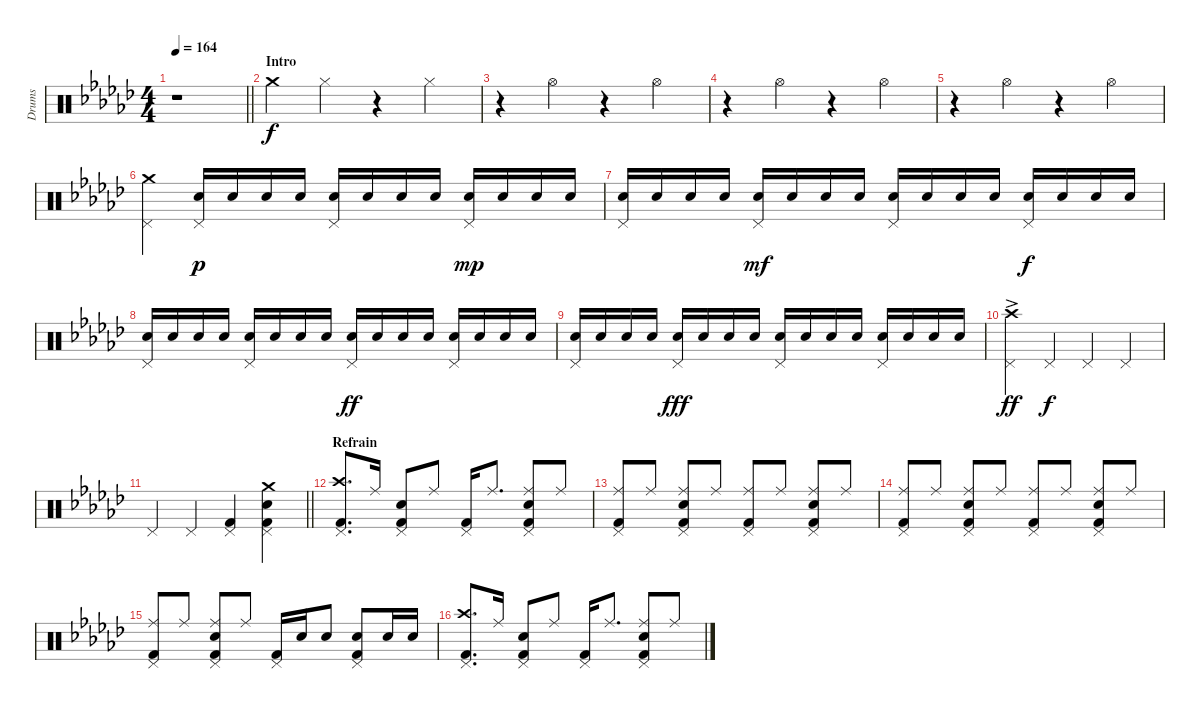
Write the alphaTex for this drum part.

\track ("Drums" "Drums") {instrument percussion}
\staff {score}
\articulation defaults
\ts (4 4)
\tempo 164
\clef neutral
\barLineRight lightlight
\ks gb
r.1{dy f} |
\section ("" "Intro")
"Crash medium (hit)".4 "Hi-Hat (closed)".4 r.4 "Hi-Hat (closed)".4 |
r.4 "Hi-Hat (open)".4 r.4 "Hi-Hat (open)".4 |
r.4 "Hi-Hat (open)".4 r.4 "Hi-Hat (open)".4 |
r.4 "Hi-Hat (open)".4 r.4 "Hi-Hat (open)".4 |
("Crash medium (hit)" "Pedal Hi-Hat (hit)").4 ("Snare (hit) 2" "Pedal Hi-Hat (hit)").16{dy p} "Snare (hit) 2".16 "Snare (hit) 2".16 "Snare (hit) 2".16 ("Snare (hit) 2" "Pedal Hi-Hat (hit)").16 "Snare (hit) 2".16 "Snare (hit) 2".16 "Snare (hit) 2".16 ("Snare (hit) 2" "Pedal Hi-Hat (hit)").16{dy mp} "Snare (hit) 2".16 "Snare (hit) 2".16 "Snare (hit) 2".16 |
("Snare (hit) 2" "Pedal Hi-Hat (hit)").16 "Snare (hit) 2".16 "Snare (hit) 2".16 "Snare (hit) 2".16 ("Snare (hit) 2" "Pedal Hi-Hat (hit)").16{dy mf} "Snare (hit) 2".16 "Snare (hit) 2".16 "Snare (hit) 2".16 ("Snare (hit) 2" "Pedal Hi-Hat (hit)").16 "Snare (hit) 2".16 "Snare (hit) 2".16 "Snare (hit) 2".16 ("Snare (hit) 2" "Pedal Hi-Hat (hit)").16{dy f} "Snare (hit) 2".16 "Snare (hit) 2".16 "Snare (hit) 2".16 |
("Snare (hit) 2" "Pedal Hi-Hat (hit)").16 "Snare (hit) 2".16 "Snare (hit) 2".16 "Snare (hit) 2".16 ("Snare (hit) 2" "Pedal Hi-Hat (hit)").16 "Snare (hit) 2".16 "Snare (hit) 2".16 "Snare (hit) 2".16 ("Snare (hit) 2" "Pedal Hi-Hat (hit)").16{dy ff} "Snare (hit) 2".16 "Snare (hit) 2".16 "Snare (hit) 2".16 ("Snare (hit) 2" "Pedal Hi-Hat (hit)").16 "Snare (hit) 2".16 "Snare (hit) 2".16 "Snare (hit) 2".16 |
("Snare (hit) 2" "Pedal Hi-Hat (hit)").16 "Snare (hit) 2".16 "Snare (hit) 2".16 "Snare (hit) 2".16 ("Snare (hit) 2" "Pedal Hi-Hat (hit)").16{dy fff} "Snare (hit) 2".16 "Snare (hit) 2".16 "Snare (hit) 2".16 ("Snare (hit) 2" "Pedal Hi-Hat (hit)").16 "Snare (hit) 2".16 "Snare (hit) 2".16 "Snare (hit) 2".16 ("Snare (hit) 2" "Pedal Hi-Hat (hit)").16 "Snare (hit) 2".16 "Snare (hit) 2".16 "Snare (hit) 2".16 |
("Crash high (hit)"{ac} "Pedal Hi-Hat (hit)").4{dy ff} "Pedal Hi-Hat (hit)".4{dy f} "Pedal Hi-Hat (hit)".4 "Pedal Hi-Hat (hit)".4 |
\barLineRight lightlight "Pedal Hi-Hat (hit)".4 "Pedal Hi-Hat (hit)".4
("Pedal Hi-Hat (hit)" "Kick (hit) 2").4 ("Crash medium (hit)" "Snare (hit) 2" "Pedal Hi-Hat (hit)" "Kick (hit) 2").4 |
\section ("" "Refrain")
("Crash high (hit)" "Pedal Hi-Hat (hit)" "Kick (hit) 2").8{d} "Ride (middle)".16 ("Snare (hit) 2" "Pedal Hi-Hat (hit)" "Kick (hit) 2").8 "Ride (middle)".8 ("Pedal Hi-Hat (hit)" "Kick (hit) 2").16 "Ride (middle)".8{d} ("Ride (middle)" "Snare (hit) 2" "Pedal Hi-Hat (hit)" "Kick (hit) 2").8 "Ride (middle)".8 |
("Ride (middle)" "Pedal Hi-Hat (hit)" "Kick (hit) 2").8 "Ride (middle)".8 ("Ride (middle)" "Snare (hit) 2" "Pedal Hi-Hat (hit)" "Kick (hit) 2").8 "Ride (middle)".8 ("Ride (middle)" "Pedal Hi-Hat (hit)" "Kick (hit) 2").8 "Ride (middle)".8 ("Ride (middle)" "Snare (hit) 2" "Pedal Hi-Hat (hit)" "Kick (hit) 2").8 "Ride (middle)".8 |
("Ride (middle)" "Pedal Hi-Hat (hit)" "Kick (hit) 2").8 "Ride (middle)".8 ("Ride (middle)" "Snare (hit) 2" "Pedal Hi-Hat (hit)" "Kick (hit) 2").8 "Ride (middle)".8 ("Ride (middle)" "Pedal Hi-Hat (hit)" "Kick (hit) 2").8 "Ride (middle)".8 ("Ride (middle)" "Snare (hit) 2" "Pedal Hi-Hat (hit)" "Kick (hit) 2").8 "Ride (middle)".8 |
("Ride (middle)" "Pedal Hi-Hat (hit)" "Kick (hit) 2").8 "Ride (middle)".8 ("Ride (middle)" "Snare (hit) 2" "Pedal Hi-Hat (hit)" "Kick (hit) 2").8 "Ride (middle)".8 ("Pedal Hi-Hat (hit)" "Kick (hit) 2").16 "Snare (hit) 2".16 "Snare (hit) 2".8 ("Snare (hit) 2" "Pedal Hi-Hat (hit)" "Kick (hit) 2").8 "Snare (hit) 2".16 "Snare (hit) 2".16 |
("Crash high (hit)" "Pedal Hi-Hat (hit)" "Kick (hit) 2").8{d} "Ride (middle)".16 ("Snare (hit) 2" "Pedal Hi-Hat (hit)" "Kick (hit) 2").8 "Ride (middle)".8 ("Pedal Hi-Hat (hit)" "Kick (hit) 2").16 "Ride (middle)".8{d} ("Ride (middle)" "Snare (hit) 2" "Pedal Hi-Hat (hit)" "Kick (hit) 2").8 "Ride (middle)".8
